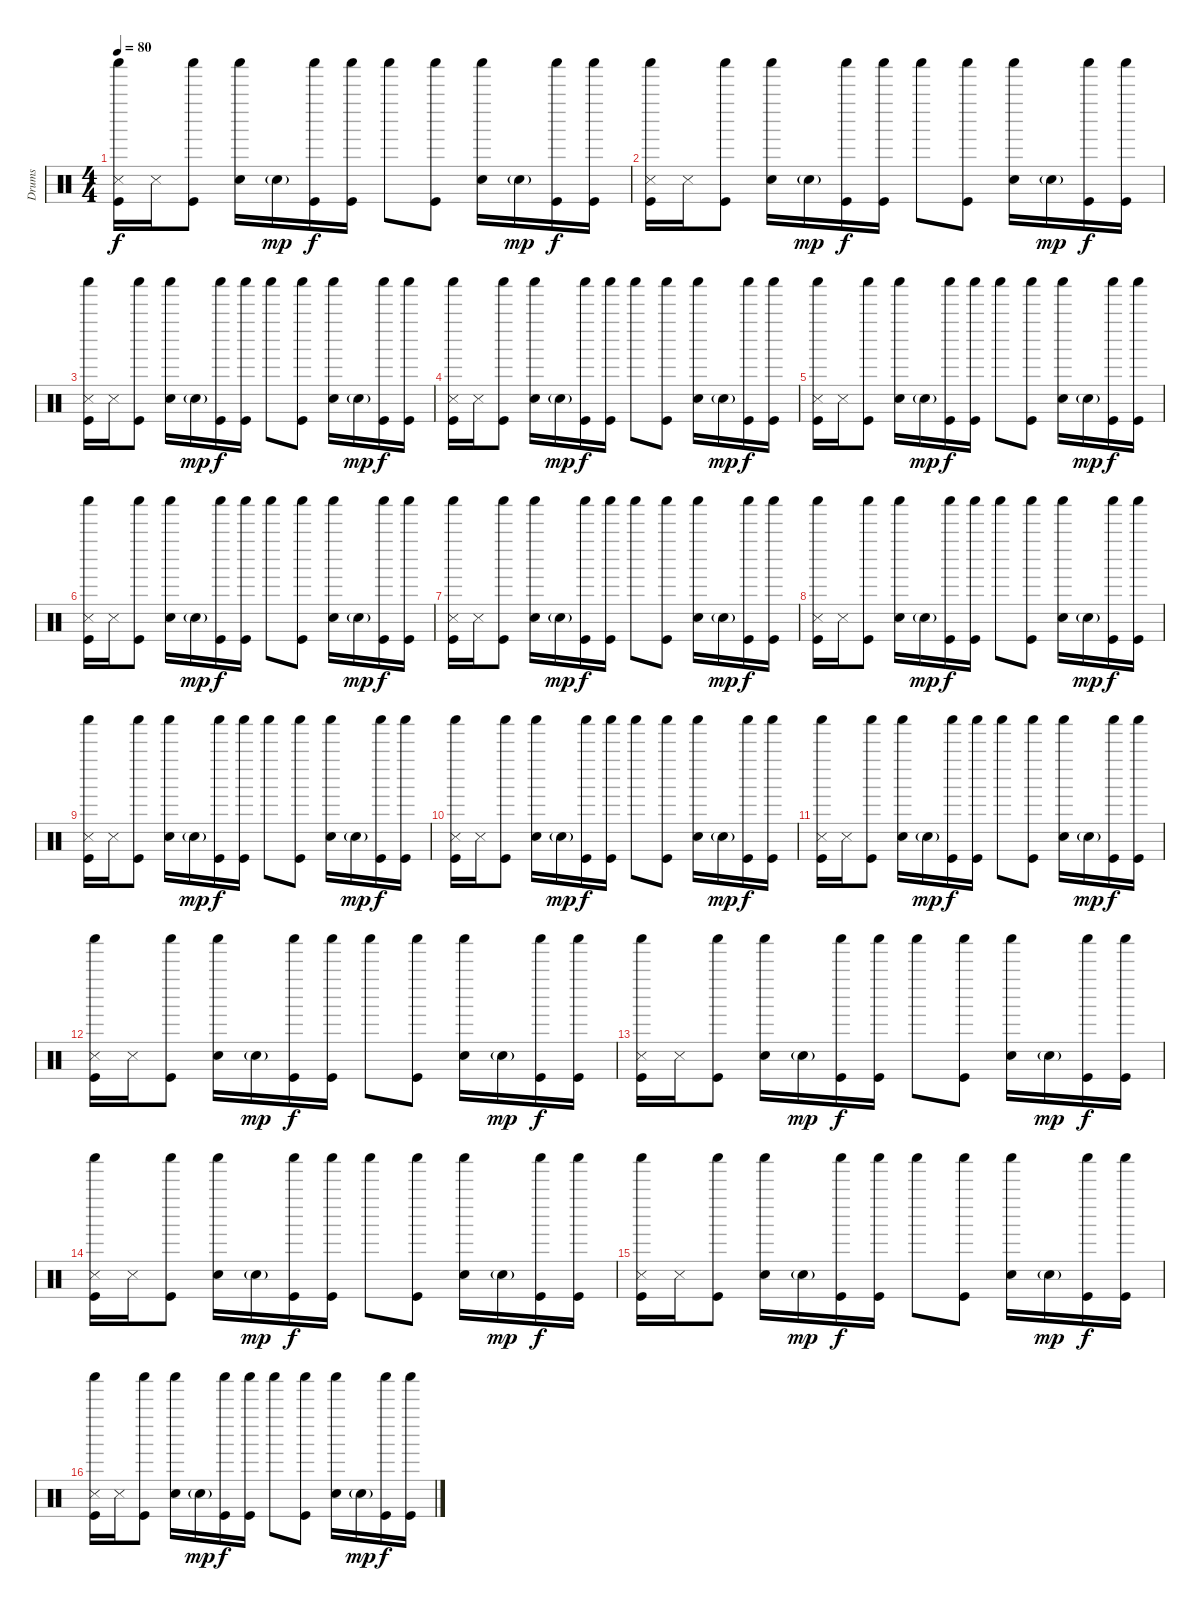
\track ("Drums" "Drums") {instrument percussion}
\staff {score}
\articulation defaults
\ts (4 4)
\tempo 80
\clef neutral
\ks c
("Shaker (hit)" "Snare (side stick) 3" "Kick (hit)").16{dy f} "Snare (side stick) 3".16 ("Shaker (hit)" "Kick (hit)").8 ("Shaker (hit)" "Electric Snare (hit)").16 "Electric Snare (hit)"{g}.16{dy mp} ("Shaker (hit)" "Kick (hit)").16{dy f} ("Shaker (hit)" "Kick (hit)").16 "Shaker (hit)".8 ("Shaker (hit)" "Kick (hit)").8 ("Shaker (hit)" "Electric Snare (hit)").16 "Electric Snare (hit)"{g}.16{dy mp} ("Shaker (hit)" "Kick (hit)").16{dy f} ("Shaker (hit)" "Kick (hit)").16 |
("Shaker (hit)" "Snare (side stick) 3" "Kick (hit)").16 "Snare (side stick) 3".16 ("Shaker (hit)" "Kick (hit)").8 ("Shaker (hit)" "Electric Snare (hit)").16 "Electric Snare (hit)"{g}.16{dy mp} ("Shaker (hit)" "Kick (hit)").16{dy f} ("Shaker (hit)" "Kick (hit)").16 "Shaker (hit)".8 ("Shaker (hit)" "Kick (hit)").8 ("Shaker (hit)" "Electric Snare (hit)").16 "Electric Snare (hit)"{g}.16{dy mp} ("Shaker (hit)" "Kick (hit)").16{dy f} ("Shaker (hit)" "Kick (hit)").16 |
("Shaker (hit)" "Snare (side stick) 3" "Kick (hit)").16 "Snare (side stick) 3".16 ("Shaker (hit)" "Kick (hit)").8 ("Shaker (hit)" "Electric Snare (hit)").16 "Electric Snare (hit)"{g}.16{dy mp} ("Shaker (hit)" "Kick (hit)").16{dy f} ("Shaker (hit)" "Kick (hit)").16 "Shaker (hit)".8 ("Shaker (hit)" "Kick (hit)").8 ("Shaker (hit)" "Electric Snare (hit)").16 "Electric Snare (hit)"{g}.16{dy mp} ("Shaker (hit)" "Kick (hit)").16{dy f} ("Shaker (hit)" "Kick (hit)").16 |
("Shaker (hit)" "Snare (side stick) 3" "Kick (hit)").16 "Snare (side stick) 3".16 ("Shaker (hit)" "Kick (hit)").8 ("Shaker (hit)" "Electric Snare (hit)").16 "Electric Snare (hit)"{g}.16{dy mp} ("Shaker (hit)" "Kick (hit)").16{dy f} ("Shaker (hit)" "Kick (hit)").16 "Shaker (hit)".8 ("Shaker (hit)" "Kick (hit)").8 ("Shaker (hit)" "Electric Snare (hit)").16 "Electric Snare (hit)"{g}.16{dy mp} ("Shaker (hit)" "Kick (hit)").16{dy f} ("Shaker (hit)" "Kick (hit)").16 |
("Shaker (hit)" "Snare (side stick) 3" "Kick (hit)").16 "Snare (side stick) 3".16 ("Shaker (hit)" "Kick (hit)").8 ("Shaker (hit)" "Electric Snare (hit)").16 "Electric Snare (hit)"{g}.16{dy mp} ("Shaker (hit)" "Kick (hit)").16{dy f} ("Shaker (hit)" "Kick (hit)").16 "Shaker (hit)".8 ("Shaker (hit)" "Kick (hit)").8 ("Shaker (hit)" "Electric Snare (hit)").16 "Electric Snare (hit)"{g}.16{dy mp} ("Shaker (hit)" "Kick (hit)").16{dy f} ("Shaker (hit)" "Kick (hit)").16 |
("Shaker (hit)" "Snare (side stick) 3" "Kick (hit)").16 "Snare (side stick) 3".16 ("Shaker (hit)" "Kick (hit)").8 ("Shaker (hit)" "Electric Snare (hit)").16 "Electric Snare (hit)"{g}.16{dy mp} ("Shaker (hit)" "Kick (hit)").16{dy f} ("Shaker (hit)" "Kick (hit)").16 "Shaker (hit)".8 ("Shaker (hit)" "Kick (hit)").8 ("Shaker (hit)" "Electric Snare (hit)").16 "Electric Snare (hit)"{g}.16{dy mp} ("Shaker (hit)" "Kick (hit)").16{dy f} ("Shaker (hit)" "Kick (hit)").16 |
("Shaker (hit)" "Snare (side stick) 3" "Kick (hit)").16 "Snare (side stick) 3".16 ("Shaker (hit)" "Kick (hit)").8 ("Shaker (hit)" "Electric Snare (hit)").16 "Electric Snare (hit)"{g}.16{dy mp} ("Shaker (hit)" "Kick (hit)").16{dy f} ("Shaker (hit)" "Kick (hit)").16 "Shaker (hit)".8 ("Shaker (hit)" "Kick (hit)").8 ("Shaker (hit)" "Electric Snare (hit)").16 "Electric Snare (hit)"{g}.16{dy mp} ("Shaker (hit)" "Kick (hit)").16{dy f} ("Shaker (hit)" "Kick (hit)").16 |
("Shaker (hit)" "Snare (side stick) 3" "Kick (hit)").16 "Snare (side stick) 3".16 ("Shaker (hit)" "Kick (hit)").8 ("Shaker (hit)" "Electric Snare (hit)").16 "Electric Snare (hit)"{g}.16{dy mp} ("Shaker (hit)" "Kick (hit)").16{dy f} ("Shaker (hit)" "Kick (hit)").16 "Shaker (hit)".8 ("Shaker (hit)" "Kick (hit)").8 ("Shaker (hit)" "Electric Snare (hit)").16 "Electric Snare (hit)"{g}.16{dy mp} ("Shaker (hit)" "Kick (hit)").16{dy f} ("Shaker (hit)" "Kick (hit)").16 |
("Shaker (hit)" "Snare (side stick) 3" "Kick (hit)").16 "Snare (side stick) 3".16 ("Shaker (hit)" "Kick (hit)").8 ("Shaker (hit)" "Electric Snare (hit)").16 "Electric Snare (hit)"{g}.16{dy mp} ("Shaker (hit)" "Kick (hit)").16{dy f} ("Shaker (hit)" "Kick (hit)").16 "Shaker (hit)".8 ("Shaker (hit)" "Kick (hit)").8 ("Shaker (hit)" "Electric Snare (hit)").16 "Electric Snare (hit)"{g}.16{dy mp} ("Shaker (hit)" "Kick (hit)").16{dy f} ("Shaker (hit)" "Kick (hit)").16 |
("Shaker (hit)" "Snare (side stick) 3" "Kick (hit)").16 "Snare (side stick) 3".16 ("Shaker (hit)" "Kick (hit)").8 ("Shaker (hit)" "Electric Snare (hit)").16 "Electric Snare (hit)"{g}.16{dy mp} ("Shaker (hit)" "Kick (hit)").16{dy f} ("Shaker (hit)" "Kick (hit)").16 "Shaker (hit)".8 ("Shaker (hit)" "Kick (hit)").8 ("Shaker (hit)" "Electric Snare (hit)").16 "Electric Snare (hit)"{g}.16{dy mp} ("Shaker (hit)" "Kick (hit)").16{dy f} ("Shaker (hit)" "Kick (hit)").16 |
("Shaker (hit)" "Snare (side stick) 3" "Kick (hit)").16 "Snare (side stick) 3".16 ("Shaker (hit)" "Kick (hit)").8 ("Shaker (hit)" "Electric Snare (hit)").16 "Electric Snare (hit)"{g}.16{dy mp} ("Shaker (hit)" "Kick (hit)").16{dy f} ("Shaker (hit)" "Kick (hit)").16 "Shaker (hit)".8 ("Shaker (hit)" "Kick (hit)").8 ("Shaker (hit)" "Electric Snare (hit)").16 "Electric Snare (hit)"{g}.16{dy mp} ("Shaker (hit)" "Kick (hit)").16{dy f} ("Shaker (hit)" "Kick (hit)").16 |
("Shaker (hit)" "Snare (side stick) 3" "Kick (hit)").16 "Snare (side stick) 3".16 ("Shaker (hit)" "Kick (hit)").8 ("Shaker (hit)" "Electric Snare (hit)").16 "Electric Snare (hit)"{g}.16{dy mp} ("Shaker (hit)" "Kick (hit)").16{dy f} ("Shaker (hit)" "Kick (hit)").16 "Shaker (hit)".8 ("Shaker (hit)" "Kick (hit)").8 ("Shaker (hit)" "Electric Snare (hit)").16 "Electric Snare (hit)"{g}.16{dy mp} ("Shaker (hit)" "Kick (hit)").16{dy f} ("Shaker (hit)" "Kick (hit)").16 |
("Shaker (hit)" "Snare (side stick) 3" "Kick (hit)").16 "Snare (side stick) 3".16 ("Shaker (hit)" "Kick (hit)").8 ("Shaker (hit)" "Electric Snare (hit)").16 "Electric Snare (hit)"{g}.16{dy mp} ("Shaker (hit)" "Kick (hit)").16{dy f} ("Shaker (hit)" "Kick (hit)").16 "Shaker (hit)".8 ("Shaker (hit)" "Kick (hit)").8 ("Shaker (hit)" "Electric Snare (hit)").16 "Electric Snare (hit)"{g}.16{dy mp} ("Shaker (hit)" "Kick (hit)").16{dy f} ("Shaker (hit)" "Kick (hit)").16 |
("Shaker (hit)" "Snare (side stick) 3" "Kick (hit)").16 "Snare (side stick) 3".16 ("Shaker (hit)" "Kick (hit)").8 ("Shaker (hit)" "Electric Snare (hit)").16 "Electric Snare (hit)"{g}.16{dy mp} ("Shaker (hit)" "Kick (hit)").16{dy f} ("Shaker (hit)" "Kick (hit)").16 "Shaker (hit)".8 ("Shaker (hit)" "Kick (hit)").8 ("Shaker (hit)" "Electric Snare (hit)").16 "Electric Snare (hit)"{g}.16{dy mp} ("Shaker (hit)" "Kick (hit)").16{dy f} ("Shaker (hit)" "Kick (hit)").16 |
("Shaker (hit)" "Snare (side stick) 3" "Kick (hit)").16 "Snare (side stick) 3".16 ("Shaker (hit)" "Kick (hit)").8 ("Shaker (hit)" "Electric Snare (hit)").16 "Electric Snare (hit)"{g}.16{dy mp} ("Shaker (hit)" "Kick (hit)").16{dy f} ("Shaker (hit)" "Kick (hit)").16 "Shaker (hit)".8 ("Shaker (hit)" "Kick (hit)").8 ("Shaker (hit)" "Electric Snare (hit)").16 "Electric Snare (hit)"{g}.16{dy mp} ("Shaker (hit)" "Kick (hit)").16{dy f} ("Shaker (hit)" "Kick (hit)").16 |
("Shaker (hit)" "Snare (side stick) 3" "Kick (hit)").16 "Snare (side stick) 3".16 ("Shaker (hit)" "Kick (hit)").8 ("Shaker (hit)" "Electric Snare (hit)").16 "Electric Snare (hit)"{g}.16{dy mp} ("Shaker (hit)" "Kick (hit)").16{dy f} ("Shaker (hit)" "Kick (hit)").16 "Shaker (hit)".8 ("Shaker (hit)" "Kick (hit)").8 ("Shaker (hit)" "Electric Snare (hit)").16 "Electric Snare (hit)"{g}.16{dy mp} ("Shaker (hit)" "Kick (hit)").16{dy f} ("Shaker (hit)" "Kick (hit)").16
